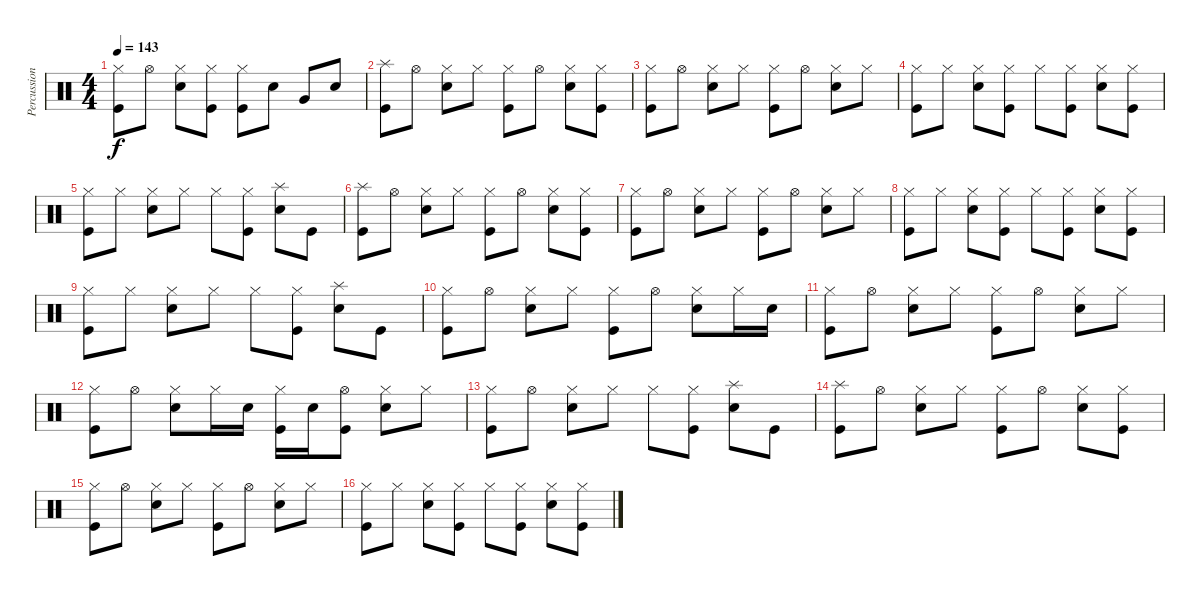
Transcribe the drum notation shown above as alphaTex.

\track ("Percussion" "Percussion") {instrument percussion}
\staff {score}
\articulation defaults
\ts (4 4)
\tempo 143
\clef neutral
\ks c
("Hi-Hat (closed)" "Kick (hit)").8{dy f} "Hi-Hat (open)".8 ("Hi-Hat (closed)" "Snare (hit) 2").8 ("Hi-Hat (closed)" "Kick (hit)").8 ("Hi-Hat (closed)" "Kick (hit)").8 "Snare (hit) 2".8 "Very Low Tom (hit)".8 "Snare (hit) 2".8 |
("Splash (hit)" "Kick (hit)").8 "Hi-Hat (open)".8 ("Hi-Hat (closed)" "Snare (hit) 2").8 "Hi-Hat (closed)".8 ("Hi-Hat (closed)" "Kick (hit)").8 "Hi-Hat (open)".8 ("Hi-Hat (closed)" "Snare (hit) 2").8 ("Hi-Hat (closed)" "Kick (hit)").8 |
("Hi-Hat (closed)" "Kick (hit)").8 "Hi-Hat (open)".8 ("Hi-Hat (closed)" "Snare (hit) 2").8 "Hi-Hat (closed)".8 ("Hi-Hat (closed)" "Kick (hit)").8 "Hi-Hat (open)".8 ("Hi-Hat (closed)" "Snare (hit) 2").8 "Hi-Hat (closed)".8 |
("Hi-Hat (closed)" "Kick (hit)").8 "Hi-Hat (closed)".8 ("Hi-Hat (closed)" "Snare (hit) 2").8 ("Hi-Hat (closed)" "Kick (hit)").8 "Hi-Hat (closed)".8 ("Hi-Hat (closed)" "Kick (hit)").8 ("Hi-Hat (closed)" "Snare (hit) 2").8 ("Hi-Hat (closed)" "Kick (hit)").8 |
("Hi-Hat (closed)" "Kick (hit)").8 "Hi-Hat (closed)".8 ("Hi-Hat (closed)" "Snare (hit) 2").8 "Hi-Hat (closed)".8 "Hi-Hat (closed)".8 ("Hi-Hat (closed)" "Kick (hit)").8 ("Splash (hit)" "Snare (hit) 2").8 "Kick (hit)".8 |
("Splash (hit)" "Kick (hit)").8 "Hi-Hat (open)".8 ("Hi-Hat (closed)" "Snare (hit) 2").8 "Hi-Hat (closed)".8 ("Hi-Hat (closed)" "Kick (hit)").8 "Hi-Hat (open)".8 ("Hi-Hat (closed)" "Snare (hit) 2").8 ("Hi-Hat (closed)" "Kick (hit)").8 |
("Hi-Hat (closed)" "Kick (hit)").8 "Hi-Hat (open)".8 ("Hi-Hat (closed)" "Snare (hit) 2").8 "Hi-Hat (closed)".8 ("Hi-Hat (closed)" "Kick (hit)").8 "Hi-Hat (open)".8 ("Hi-Hat (closed)" "Snare (hit) 2").8 "Hi-Hat (closed)".8 |
("Hi-Hat (closed)" "Kick (hit)").8 "Hi-Hat (closed)".8 ("Hi-Hat (closed)" "Snare (hit) 2").8 ("Hi-Hat (closed)" "Kick (hit)").8 "Hi-Hat (closed)".8 ("Hi-Hat (closed)" "Kick (hit)").8 ("Hi-Hat (closed)" "Snare (hit) 2").8 ("Hi-Hat (closed)" "Kick (hit)").8 |
("Hi-Hat (closed)" "Kick (hit)").8 "Hi-Hat (closed)".8 ("Hi-Hat (closed)" "Snare (hit) 2").8 "Hi-Hat (closed)".8 "Hi-Hat (closed)".8 ("Hi-Hat (closed)" "Kick (hit)").8 ("Splash (hit)" "Snare (hit) 2").8 "Kick (hit)".8 |
("Hi-Hat (closed)" "Kick (hit)").8 "Hi-Hat (open)".8 ("Hi-Hat (closed)" "Snare (hit) 2").8 "Hi-Hat (closed)".8 ("Hi-Hat (closed)" "Kick (hit)").8 "Hi-Hat (open)".8 ("Hi-Hat (closed)" "Snare (hit) 2").8 "Hi-Hat (closed)".16 "Snare (hit) 2".16 |
("Hi-Hat (closed)" "Kick (hit)").8 "Hi-Hat (open)".8 ("Hi-Hat (closed)" "Snare (hit) 2").8 "Hi-Hat (closed)".8 ("Hi-Hat (closed)" "Kick (hit)").8 "Hi-Hat (open)".8 ("Hi-Hat (closed)" "Snare (hit) 2").8 "Hi-Hat (closed)".8 |
("Hi-Hat (closed)" "Kick (hit)").8 "Hi-Hat (open)".8 ("Hi-Hat (closed)" "Snare (hit) 2").8 "Hi-Hat (closed)".16 "Snare (hit) 2".16 ("Hi-Hat (closed)" "Kick (hit)").16 "Snare (hit) 2".16 ("Hi-Hat (open)" "Kick (hit)").8 ("Hi-Hat (closed)" "Snare (hit) 2").8 "Hi-Hat (closed)".8 |
("Hi-Hat (closed)" "Kick (hit)").8 "Hi-Hat (open)".8 ("Hi-Hat (closed)" "Snare (hit) 2").8 "Hi-Hat (closed)".8 "Hi-Hat (closed)".8 ("Hi-Hat (closed)" "Kick (hit)").8 ("Splash (hit)" "Snare (hit) 2").8 "Kick (hit)".8 |
("Splash (hit)" "Kick (hit)").8 "Hi-Hat (open)".8 ("Hi-Hat (closed)" "Snare (hit) 2").8 "Hi-Hat (closed)".8 ("Hi-Hat (closed)" "Kick (hit)").8 "Hi-Hat (open)".8 ("Hi-Hat (closed)" "Snare (hit) 2").8 ("Hi-Hat (closed)" "Kick (hit)").8 |
("Hi-Hat (closed)" "Kick (hit)").8 "Hi-Hat (open)".8 ("Hi-Hat (closed)" "Snare (hit) 2").8 "Hi-Hat (closed)".8 ("Hi-Hat (closed)" "Kick (hit)").8 "Hi-Hat (open)".8 ("Hi-Hat (closed)" "Snare (hit) 2").8 "Hi-Hat (closed)".8 |
("Hi-Hat (closed)" "Kick (hit)").8 "Hi-Hat (closed)".8 ("Hi-Hat (closed)" "Snare (hit) 2").8 ("Hi-Hat (closed)" "Kick (hit)").8 "Hi-Hat (closed)".8 ("Hi-Hat (closed)" "Kick (hit)").8 ("Hi-Hat (closed)" "Snare (hit) 2").8 ("Hi-Hat (closed)" "Kick (hit)").8
